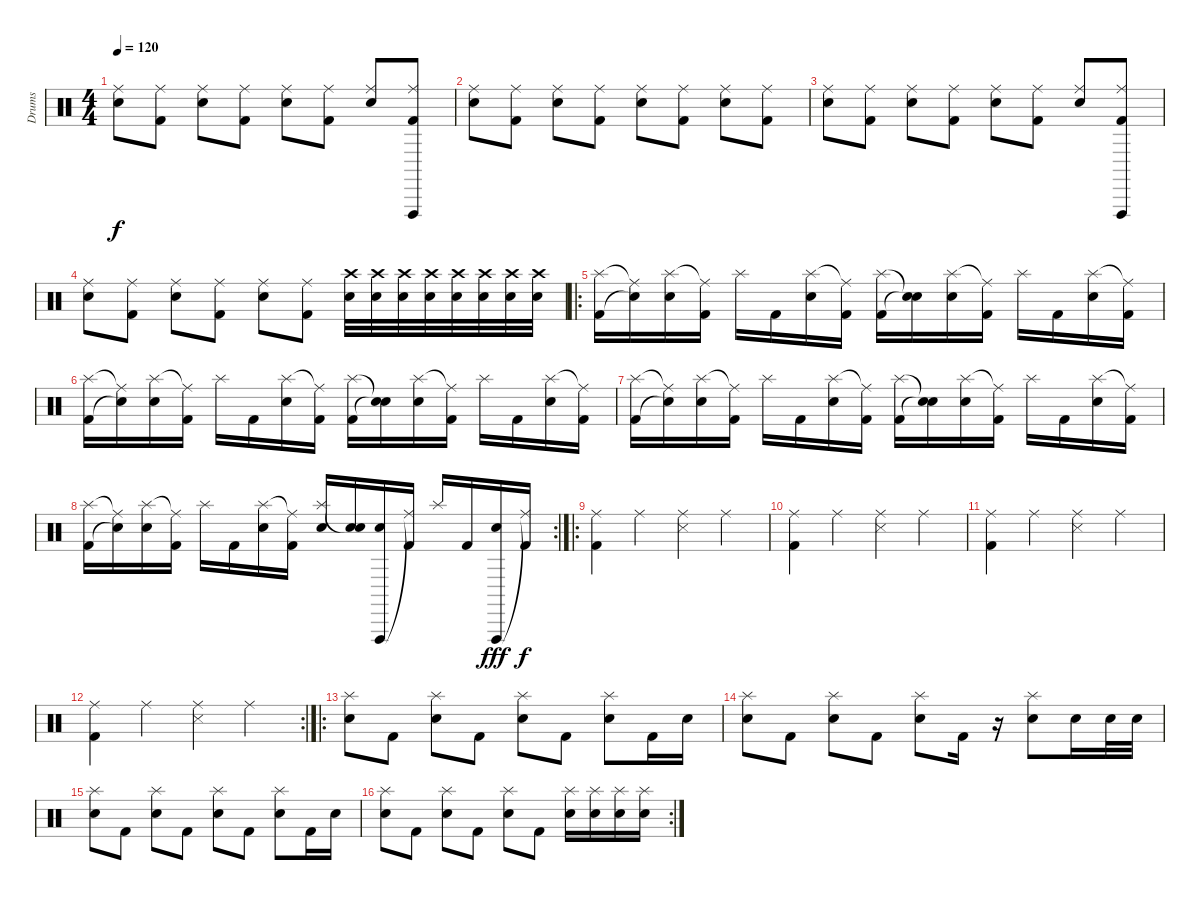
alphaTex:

\track ("Drums" "Drums") {instrument percussion}
\staff {score}
\articulation defaults
\ts (4 4)
\tempo 120
\clef neutral
\ks c
("Ride (middle)" "Electric Snare (hit)").8{dy f} ("Ride (middle)" "Kick (hit) 2").8 ("Ride (middle)" "Electric Snare (hit)").8 ("Ride (middle)" "Kick (hit) 2").8 ("Ride (middle)" "Electric Snare (hit)").8 ("Ride (middle)" "Kick (hit) 2").8 ("Ride (middle)" "Electric Snare (hit)").8 ("Ride (middle)" "Vibraslap (hit)" "Kick (hit) 2").8 |
("Ride (middle)" "Electric Snare (hit)").8 ("Ride (middle)" "Kick (hit) 2").8 ("Ride (middle)" "Electric Snare (hit)").8 ("Ride (middle)" "Kick (hit) 2").8 ("Ride (middle)" "Electric Snare (hit)").8 ("Ride (middle)" "Kick (hit) 2").8 ("Ride (middle)" "Electric Snare (hit)").8 ("Ride (middle)" "Kick (hit) 2").8 |
("Ride (middle)" "Electric Snare (hit)").8 ("Ride (middle)" "Kick (hit) 2").8 ("Ride (middle)" "Electric Snare (hit)").8 ("Ride (middle)" "Kick (hit) 2").8 ("Ride (middle)" "Electric Snare (hit)").8 ("Ride (middle)" "Kick (hit) 2").8 ("Ride (middle)" "Electric Snare (hit)").8 ("Ride (middle)" "Vibraslap (hit)" "Kick (hit) 2").8 |
("Ride (middle)" "Electric Snare (hit)").8 ("Ride (middle)" "Kick (hit) 2").8 ("Ride (middle)" "Electric Snare (hit)").8 ("Ride (middle)" "Kick (hit) 2").8 ("Ride (middle)" "Electric Snare (hit)").8 ("Ride (middle)" "Kick (hit) 2").8 ("Crash high (hit)" "Electric Snare (hit)").32 ("Crash high (hit)" "Electric Snare (hit)").32 ("Crash high (hit)" "Electric Snare (hit)").32 ("Crash high (hit)" "Electric Snare (hit)").32 ("Crash high (hit)" "Electric Snare (hit)").32 ("Crash high (hit)" "Electric Snare (hit)").32 ("Crash high (hit)" "Electric Snare (hit)").32 ("Crash high (hit)" "Electric Snare (hit)").32 |
\ro
("Splash (hit)" "Kick (hit) 2").16 ("Ride (middle)"{t} "Snare (hit)"{t}).16 ("Splash (hit)" "Electric Snare (hit)").16 ("Ride (middle)"{t} "Kick (hit) 2").16 "Splash (hit)".16 "Kick (hit) 2".16 ("Splash (hit)" "Electric Snare (hit)").16 ("Ride (middle)"{t} "Kick (hit) 2").16 ("Splash (hit)" "Kick (hit) 2").16 ("Snare (hit)"{t} "Snare (hit)"{t}).16 ("Splash (hit)" "Electric Snare (hit)").16 ("Ride (middle)"{t} "Kick (hit) 2").16 "Splash (hit)".16 "Kick (hit) 2".16 ("Splash (hit)" "Electric Snare (hit)").16 ("Ride (middle)"{t} "Kick (hit) 2").16 |
("Splash (hit)" "Kick (hit) 2").16 ("Ride (middle)"{t} "Snare (hit)"{t}).16 ("Splash (hit)" "Electric Snare (hit)").16 ("Ride (middle)"{t} "Kick (hit) 2").16 "Splash (hit)".16 "Kick (hit) 2".16 ("Splash (hit)" "Electric Snare (hit)").16 ("Ride (middle)"{t} "Kick (hit) 2").16 ("Splash (hit)" "Kick (hit) 2").16 ("Snare (hit)"{t} "Snare (hit)"{t}).16 ("Splash (hit)" "Electric Snare (hit)").16 ("Ride (middle)"{t} "Kick (hit) 2").16 "Splash (hit)".16 "Kick (hit) 2".16 ("Splash (hit)" "Electric Snare (hit)").16 ("Ride (middle)"{t} "Kick (hit) 2").16 |
("Splash (hit)" "Kick (hit) 2").16 ("Ride (middle)"{t} "Snare (hit)"{t}).16 ("Splash (hit)" "Electric Snare (hit)").16 ("Ride (middle)"{t} "Kick (hit) 2").16 "Splash (hit)".16 "Kick (hit) 2".16 ("Splash (hit)" "Electric Snare (hit)").16 ("Ride (middle)"{t} "Kick (hit) 2").16 ("Splash (hit)" "Kick (hit) 2").16 ("Snare (hit)"{t} "Snare (hit)"{t}).16 ("Splash (hit)" "Electric Snare (hit)").16 ("Ride (middle)"{t} "Kick (hit) 2").16 "Splash (hit)".16 "Kick (hit) 2".16 ("Splash (hit)" "Electric Snare (hit)").16 ("Ride (middle)"{t} "Kick (hit) 2").16 |
\rc 2
("Splash (hit)" "Kick (hit) 2").16 ("Ride (middle)"{t} "Snare (hit)"{t}).16 ("Splash (hit)" "Electric Snare (hit)").16 ("Ride (middle)"{t} "Kick (hit) 2").16 "Splash (hit)".16 "Kick (hit) 2".16 ("Splash (hit)" "Electric Snare (hit)").16 ("Ride (middle)"{t} "Kick (hit) 2").16 ("Splash (hit)" "Electric Snare (hit)").16 ("Snare (hit)"{t} "Electric Snare (hit)").16 ("Vibraslap (hit)" "Electric Snare (hit)").16 ("Ride (middle)"{t} "Kick (hit) 2").16 "Splash (hit)".16 "Kick (hit) 2".16 ("Vibraslap (hit)" "Electric Snare (hit)").16{dy fff} ("Ride (middle)"{t} "Kick (hit) 2").16{dy f} |
\ro
("Ride (middle)" "Kick (hit) 2").4 "Ride (middle)".4 ("Ride (middle)" "Snare (side stick) 3").4 "Ride (middle)".4 |
("Ride (middle)" "Kick (hit) 2").4 "Ride (middle)".4 ("Ride (middle)" "Snare (side stick) 3").4 "Ride (middle)".4 |
("Ride (middle)" "Kick (hit) 2").4 "Ride (middle)".4 ("Ride (middle)" "Snare (side stick) 3").4 "Ride (middle)".4 |
\rc 2
("Ride (middle)" "Kick (hit) 2").4 "Ride (middle)".4 ("Ride (middle)" "Snare (side stick) 3").4 "Ride (middle)".4 |
\ro
("Splash (hit)" "Electric Snare (hit)").8 "Kick (hit) 2".8 ("Splash (hit)" "Electric Snare (hit)").8 "Kick (hit) 2".8 ("Splash (hit)" "Electric Snare (hit)").8 "Kick (hit) 2".8 ("Splash (hit)" "Electric Snare (hit)").8 "Kick (hit) 2".16 "Electric Snare (hit)".16 |
("Splash (hit)" "Electric Snare (hit)").8 "Kick (hit) 2".8 ("Splash (hit)" "Electric Snare (hit)").8 "Kick (hit) 2".8 ("Splash (hit)" "Electric Snare (hit)").8 "Kick (hit) 2".16 r.16 ("Splash (hit)" "Electric Snare (hit)").8 "Electric Snare (hit)".16 "Electric Snare (hit)".32 "Electric Snare (hit)".32 |
("Splash (hit)" "Electric Snare (hit)").8 "Kick (hit) 2".8 ("Splash (hit)" "Electric Snare (hit)").8 "Kick (hit) 2".8 ("Splash (hit)" "Electric Snare (hit)").8 "Kick (hit) 2".8 ("Splash (hit)" "Electric Snare (hit)").8 "Kick (hit) 2".16 "Electric Snare (hit)".16 |
\rc 2
("Splash (hit)" "Electric Snare (hit)").8 "Kick (hit) 2".8 ("Splash (hit)" "Electric Snare (hit)").8 "Kick (hit) 2".8 ("Splash (hit)" "Electric Snare (hit)").8 "Kick (hit) 2".8 ("Splash (hit)" "Electric Snare (hit)").16 ("Splash (hit)" "Electric Snare (hit)").16 ("Splash (hit)" "Electric Snare (hit)").16 ("Splash (hit)" "Electric Snare (hit)").16
